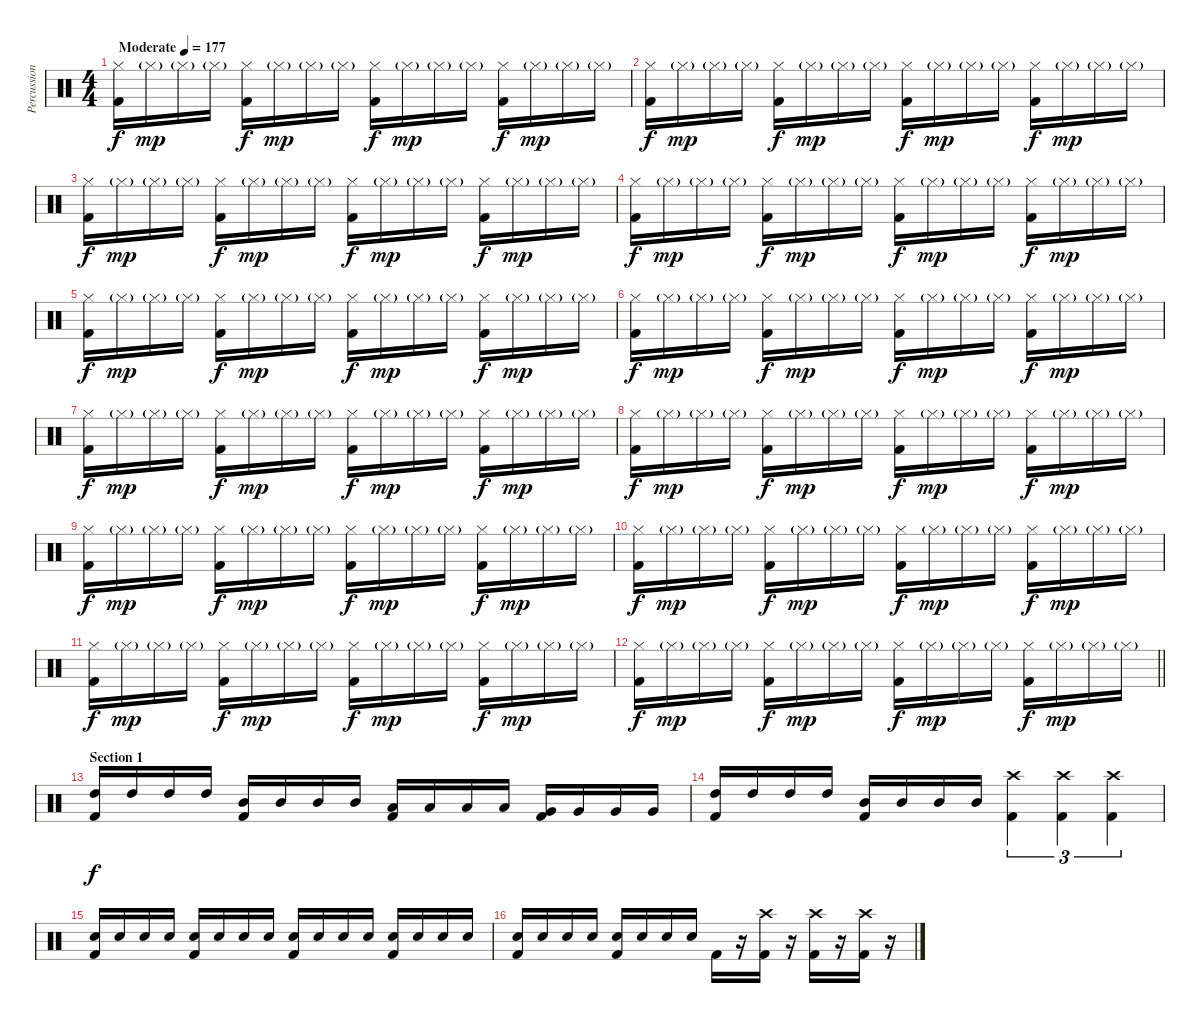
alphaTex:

\track ("Percussion" "Percussion") {instrument percussion}
\staff {score}
\articulation defaults
\ts (4 4)
\tempo (177 "Moderate")
\clef neutral
\ks c
("Hi-Hat (closed)" "Kick (hit) 2").16{dy f} "Hi-Hat (closed)"{g}.16{dy mp} "Hi-Hat (closed)"{g}.16 "Hi-Hat (closed)"{g}.16 ("Hi-Hat (closed)" "Kick (hit) 2").16{dy f} "Hi-Hat (closed)"{g}.16{dy mp} "Hi-Hat (closed)"{g}.16 "Hi-Hat (closed)"{g}.16 ("Hi-Hat (closed)" "Kick (hit) 2").16{dy f} "Hi-Hat (closed)"{g}.16{dy mp} "Hi-Hat (closed)"{g}.16 "Hi-Hat (closed)"{g}.16 ("Hi-Hat (closed)" "Kick (hit) 2").16{dy f} "Hi-Hat (closed)"{g}.16{dy mp} "Hi-Hat (closed)"{g}.16 "Hi-Hat (closed)"{g}.16 |
("Hi-Hat (closed)" "Kick (hit) 2").16{dy f} "Hi-Hat (closed)"{g}.16{dy mp} "Hi-Hat (closed)"{g}.16 "Hi-Hat (closed)"{g}.16 ("Hi-Hat (closed)" "Kick (hit) 2").16{dy f} "Hi-Hat (closed)"{g}.16{dy mp} "Hi-Hat (closed)"{g}.16 "Hi-Hat (closed)"{g}.16 ("Hi-Hat (closed)" "Kick (hit) 2").16{dy f} "Hi-Hat (closed)"{g}.16{dy mp} "Hi-Hat (closed)"{g}.16 "Hi-Hat (closed)"{g}.16 ("Hi-Hat (closed)" "Kick (hit) 2").16{dy f} "Hi-Hat (closed)"{g}.16{dy mp} "Hi-Hat (closed)"{g}.16 "Hi-Hat (closed)"{g}.16 |
("Hi-Hat (closed)" "Kick (hit) 2").16{dy f} "Hi-Hat (closed)"{g}.16{dy mp} "Hi-Hat (closed)"{g}.16 "Hi-Hat (closed)"{g}.16 ("Hi-Hat (closed)" "Kick (hit) 2").16{dy f} "Hi-Hat (closed)"{g}.16{dy mp} "Hi-Hat (closed)"{g}.16 "Hi-Hat (closed)"{g}.16 ("Hi-Hat (closed)" "Kick (hit) 2").16{dy f} "Hi-Hat (closed)"{g}.16{dy mp} "Hi-Hat (closed)"{g}.16 "Hi-Hat (closed)"{g}.16 ("Hi-Hat (closed)" "Kick (hit) 2").16{dy f} "Hi-Hat (closed)"{g}.16{dy mp} "Hi-Hat (closed)"{g}.16 "Hi-Hat (closed)"{g}.16 |
("Hi-Hat (closed)" "Kick (hit) 2").16{dy f} "Hi-Hat (closed)"{g}.16{dy mp} "Hi-Hat (closed)"{g}.16 "Hi-Hat (closed)"{g}.16 ("Hi-Hat (closed)" "Kick (hit) 2").16{dy f} "Hi-Hat (closed)"{g}.16{dy mp} "Hi-Hat (closed)"{g}.16 "Hi-Hat (closed)"{g}.16 ("Hi-Hat (closed)" "Kick (hit) 2").16{dy f} "Hi-Hat (closed)"{g}.16{dy mp} "Hi-Hat (closed)"{g}.16 "Hi-Hat (closed)"{g}.16 ("Hi-Hat (closed)" "Kick (hit) 2").16{dy f} "Hi-Hat (closed)"{g}.16{dy mp} "Hi-Hat (closed)"{g}.16 "Hi-Hat (closed)"{g}.16 |
("Hi-Hat (closed)" "Kick (hit) 2").16{dy f} "Hi-Hat (closed)"{g}.16{dy mp} "Hi-Hat (closed)"{g}.16 "Hi-Hat (closed)"{g}.16 ("Hi-Hat (closed)" "Kick (hit) 2").16{dy f} "Hi-Hat (closed)"{g}.16{dy mp} "Hi-Hat (closed)"{g}.16 "Hi-Hat (closed)"{g}.16 ("Hi-Hat (closed)" "Kick (hit) 2").16{dy f} "Hi-Hat (closed)"{g}.16{dy mp} "Hi-Hat (closed)"{g}.16 "Hi-Hat (closed)"{g}.16 ("Hi-Hat (closed)" "Kick (hit) 2").16{dy f} "Hi-Hat (closed)"{g}.16{dy mp} "Hi-Hat (closed)"{g}.16 "Hi-Hat (closed)"{g}.16 |
("Hi-Hat (closed)" "Kick (hit) 2").16{dy f} "Hi-Hat (closed)"{g}.16{dy mp} "Hi-Hat (closed)"{g}.16 "Hi-Hat (closed)"{g}.16 ("Hi-Hat (closed)" "Kick (hit) 2").16{dy f} "Hi-Hat (closed)"{g}.16{dy mp} "Hi-Hat (closed)"{g}.16 "Hi-Hat (closed)"{g}.16 ("Hi-Hat (closed)" "Kick (hit) 2").16{dy f} "Hi-Hat (closed)"{g}.16{dy mp} "Hi-Hat (closed)"{g}.16 "Hi-Hat (closed)"{g}.16 ("Hi-Hat (closed)" "Kick (hit) 2").16{dy f} "Hi-Hat (closed)"{g}.16{dy mp} "Hi-Hat (closed)"{g}.16 "Hi-Hat (closed)"{g}.16 |
("Hi-Hat (closed)" "Kick (hit) 2").16{dy f} "Hi-Hat (closed)"{g}.16{dy mp} "Hi-Hat (closed)"{g}.16 "Hi-Hat (closed)"{g}.16 ("Hi-Hat (closed)" "Kick (hit) 2").16{dy f} "Hi-Hat (closed)"{g}.16{dy mp} "Hi-Hat (closed)"{g}.16 "Hi-Hat (closed)"{g}.16 ("Hi-Hat (closed)" "Kick (hit) 2").16{dy f} "Hi-Hat (closed)"{g}.16{dy mp} "Hi-Hat (closed)"{g}.16 "Hi-Hat (closed)"{g}.16 ("Hi-Hat (closed)" "Kick (hit) 2").16{dy f} "Hi-Hat (closed)"{g}.16{dy mp} "Hi-Hat (closed)"{g}.16 "Hi-Hat (closed)"{g}.16 |
("Hi-Hat (closed)" "Kick (hit) 2").16{dy f} "Hi-Hat (closed)"{g}.16{dy mp} "Hi-Hat (closed)"{g}.16 "Hi-Hat (closed)"{g}.16 ("Hi-Hat (closed)" "Kick (hit) 2").16{dy f} "Hi-Hat (closed)"{g}.16{dy mp} "Hi-Hat (closed)"{g}.16 "Hi-Hat (closed)"{g}.16 ("Hi-Hat (closed)" "Kick (hit) 2").16{dy f} "Hi-Hat (closed)"{g}.16{dy mp} "Hi-Hat (closed)"{g}.16 "Hi-Hat (closed)"{g}.16 ("Hi-Hat (closed)" "Kick (hit) 2").16{dy f} "Hi-Hat (closed)"{g}.16{dy mp} "Hi-Hat (closed)"{g}.16 "Hi-Hat (closed)"{g}.16 |
("Hi-Hat (closed)" "Kick (hit) 2").16{dy f} "Hi-Hat (closed)"{g}.16{dy mp} "Hi-Hat (closed)"{g}.16 "Hi-Hat (closed)"{g}.16 ("Hi-Hat (closed)" "Kick (hit) 2").16{dy f} "Hi-Hat (closed)"{g}.16{dy mp} "Hi-Hat (closed)"{g}.16 "Hi-Hat (closed)"{g}.16 ("Hi-Hat (closed)" "Kick (hit) 2").16{dy f} "Hi-Hat (closed)"{g}.16{dy mp} "Hi-Hat (closed)"{g}.16 "Hi-Hat (closed)"{g}.16 ("Hi-Hat (closed)" "Kick (hit) 2").16{dy f} "Hi-Hat (closed)"{g}.16{dy mp} "Hi-Hat (closed)"{g}.16 "Hi-Hat (closed)"{g}.16 |
("Hi-Hat (closed)" "Kick (hit) 2").16{dy f} "Hi-Hat (closed)"{g}.16{dy mp} "Hi-Hat (closed)"{g}.16 "Hi-Hat (closed)"{g}.16 ("Hi-Hat (closed)" "Kick (hit) 2").16{dy f} "Hi-Hat (closed)"{g}.16{dy mp} "Hi-Hat (closed)"{g}.16 "Hi-Hat (closed)"{g}.16 ("Hi-Hat (closed)" "Kick (hit) 2").16{dy f} "Hi-Hat (closed)"{g}.16{dy mp} "Hi-Hat (closed)"{g}.16 "Hi-Hat (closed)"{g}.16 ("Hi-Hat (closed)" "Kick (hit) 2").16{dy f} "Hi-Hat (closed)"{g}.16{dy mp} "Hi-Hat (closed)"{g}.16 "Hi-Hat (closed)"{g}.16 |
("Hi-Hat (closed)" "Kick (hit) 2").16{dy f} "Hi-Hat (closed)"{g}.16{dy mp} "Hi-Hat (closed)"{g}.16 "Hi-Hat (closed)"{g}.16 ("Hi-Hat (closed)" "Kick (hit) 2").16{dy f} "Hi-Hat (closed)"{g}.16{dy mp} "Hi-Hat (closed)"{g}.16 "Hi-Hat (closed)"{g}.16 ("Hi-Hat (closed)" "Kick (hit) 2").16{dy f} "Hi-Hat (closed)"{g}.16{dy mp} "Hi-Hat (closed)"{g}.16 "Hi-Hat (closed)"{g}.16 ("Hi-Hat (closed)" "Kick (hit) 2").16{dy f} "Hi-Hat (closed)"{g}.16{dy mp} "Hi-Hat (closed)"{g}.16 "Hi-Hat (closed)"{g}.16 |
\barLineRight lightlight
("Hi-Hat (closed)" "Kick (hit) 2").16{dy f} "Hi-Hat (closed)"{g}.16{dy mp} "Hi-Hat (closed)"{g}.16 "Hi-Hat (closed)"{g}.16 ("Hi-Hat (closed)" "Kick (hit) 2").16{dy f} "Hi-Hat (closed)"{g}.16{dy mp} "Hi-Hat (closed)"{g}.16 "Hi-Hat (closed)"{g}.16 ("Hi-Hat (closed)" "Kick (hit) 2").16{dy f} "Hi-Hat (closed)"{g}.16{dy mp} "Hi-Hat (closed)"{g}.16 "Hi-Hat (closed)"{g}.16 ("Hi-Hat (closed)" "Kick (hit) 2").16{dy f} "Hi-Hat (closed)"{g}.16{dy mp} "Hi-Hat (closed)"{g}.16 "Hi-Hat (closed)"{g}.16 |
\section ("" "Section 1")
("Kick (hit) 2" "High Tom (hit)").16{dy f} "High Tom (hit)".16 "High Tom (hit)".16 "High Tom (hit)".16 ("Kick (hit) 2" "Mid Tom (hit)").16 "Mid Tom (hit)".16 "Mid Tom (hit)".16 "Mid Tom (hit)".16 ("Kick (hit) 2" "Low Tom (hit)").16 "Low Tom (hit)".16 "Low Tom (hit)".16 "Low Tom (hit)".16 ("Kick (hit) 2" "Very Low Tom (hit)").16 "Very Low Tom (hit)".16 "Very Low Tom (hit)".16 "Very Low Tom (hit)".16 |
("Kick (hit) 2" "High Tom (hit)").16 "High Tom (hit)".16 "High Tom (hit)".16 "High Tom (hit)".16 ("Kick (hit) 2" "Mid Tom (hit)").16 "Mid Tom (hit)".16 "Mid Tom (hit)".16 "Mid Tom (hit)".16 ("Crash high (hit)" "Kick (hit) 2").4{tu (3 2)} ("Crash high (hit)" "Kick (hit) 2").4{tu (3 2)} ("Crash high (hit)" "Kick (hit) 2").4{tu (3 2)} |
("Kick (hit) 2" "Snare (hit) 2").16 "Snare (hit) 2".16 "Snare (hit) 2".16 "Snare (hit) 2".16 ("Kick (hit) 2" "Snare (hit) 2").16 "Snare (hit) 2".16 "Snare (hit) 2".16 "Snare (hit) 2".16 ("Kick (hit) 2" "Snare (hit) 2").16 "Snare (hit) 2".16 "Snare (hit) 2".16 "Snare (hit) 2".16 ("Kick (hit) 2" "Snare (hit) 2").16 "Snare (hit) 2".16 "Snare (hit) 2".16 "Snare (hit) 2".16 |
("Kick (hit) 2" "Snare (hit) 2").16 "Snare (hit) 2".16 "Snare (hit) 2".16 "Snare (hit) 2".16 ("Kick (hit) 2" "Snare (hit) 2").16 "Snare (hit) 2".16 "Snare (hit) 2".16 "Snare (hit) 2".16 "Kick (hit) 2".16 r.16 ("Crash high (hit)" "Kick (hit) 2").16 r.16 ("Crash high (hit)" "Kick (hit) 2").16 r.16 ("Crash high (hit)" "Kick (hit) 2").16 r.16
